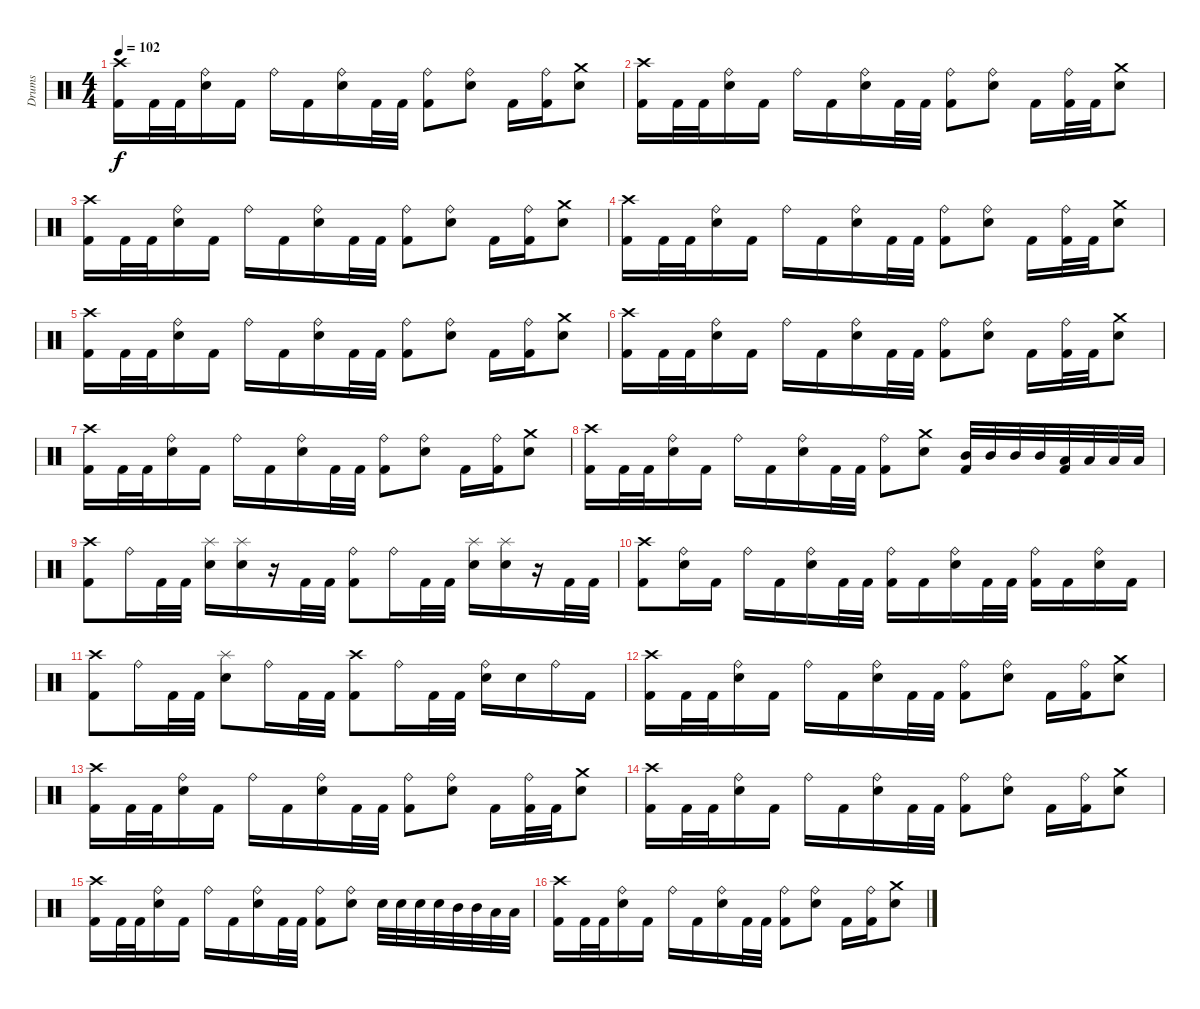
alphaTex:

\track ("Drums" "Drums") {instrument percussion}
\staff {score}
\articulation defaults
\ts (4 4)
\tempo 102
\clef neutral
\ks c
("Crash high (hit)" "Kick (hit) 2").16{dy f} "Kick (hit) 2".32 "Kick (hit) 2".32 ("Ride (bell)" "Snare (hit) 2").16 "Kick (hit) 2".16 "Ride (bell)".16 "Kick (hit) 2".16 ("Ride (bell)" "Snare (hit) 2").16 "Kick (hit) 2".32 "Kick (hit) 2".32 ("Ride (bell)" "Kick (hit) 2").8 ("Ride (bell)" "Snare (hit) 2").8 "Kick (hit) 2".16 ("Ride (bell)" "Kick (hit) 2").16 ("Crash medium (hit)" "Snare (hit) 2").8 |
("Crash high (hit)" "Kick (hit) 2").16 "Kick (hit) 2".32 "Kick (hit) 2".32 ("Ride (bell)" "Snare (hit) 2").16 "Kick (hit) 2".16 "Ride (bell)".16 "Kick (hit) 2".16 ("Ride (bell)" "Snare (hit) 2").16 "Kick (hit) 2".32 "Kick (hit) 2".32 ("Ride (bell)" "Kick (hit) 2").8 ("Ride (bell)" "Snare (hit) 2").8 "Kick (hit) 2".16 ("Ride (bell)" "Kick (hit) 2").32 "Kick (hit) 2".32 ("Crash medium (hit)" "Snare (hit) 2").8 |
("Crash high (hit)" "Kick (hit) 2").16 "Kick (hit) 2".32 "Kick (hit) 2".32 ("Ride (bell)" "Snare (hit) 2").16 "Kick (hit) 2".16 "Ride (bell)".16 "Kick (hit) 2".16 ("Ride (bell)" "Snare (hit) 2").16 "Kick (hit) 2".32 "Kick (hit) 2".32 ("Ride (bell)" "Kick (hit) 2").8 ("Ride (bell)" "Snare (hit) 2").8 "Kick (hit) 2".16 ("Ride (bell)" "Kick (hit) 2").16 ("Crash medium (hit)" "Snare (hit) 2").8 |
("Crash high (hit)" "Kick (hit) 2").16 "Kick (hit) 2".32 "Kick (hit) 2".32 ("Ride (bell)" "Snare (hit) 2").16 "Kick (hit) 2".16 "Ride (bell)".16 "Kick (hit) 2".16 ("Ride (bell)" "Snare (hit) 2").16 "Kick (hit) 2".32 "Kick (hit) 2".32 ("Ride (bell)" "Kick (hit) 2").8 ("Ride (bell)" "Snare (hit) 2").8 "Kick (hit) 2".16 ("Ride (bell)" "Kick (hit) 2").32 "Kick (hit) 2".32 ("Crash medium (hit)" "Snare (hit) 2").8 |
("Crash high (hit)" "Kick (hit) 2").16 "Kick (hit) 2".32 "Kick (hit) 2".32 ("Ride (bell)" "Snare (hit) 2").16 "Kick (hit) 2".16 "Ride (bell)".16 "Kick (hit) 2".16 ("Ride (bell)" "Snare (hit) 2").16 "Kick (hit) 2".32 "Kick (hit) 2".32 ("Ride (bell)" "Kick (hit) 2").8 ("Ride (bell)" "Snare (hit) 2").8 "Kick (hit) 2".16 ("Ride (bell)" "Kick (hit) 2").16 ("Crash medium (hit)" "Snare (hit) 2").8 |
("Crash high (hit)" "Kick (hit) 2").16 "Kick (hit) 2".32 "Kick (hit) 2".32 ("Ride (bell)" "Snare (hit) 2").16 "Kick (hit) 2".16 "Ride (bell)".16 "Kick (hit) 2".16 ("Ride (bell)" "Snare (hit) 2").16 "Kick (hit) 2".32 "Kick (hit) 2".32 ("Ride (bell)" "Kick (hit) 2").8 ("Ride (bell)" "Snare (hit) 2").8 "Kick (hit) 2".16 ("Ride (bell)" "Kick (hit) 2").32 "Kick (hit) 2".32 ("Crash medium (hit)" "Snare (hit) 2").8 |
("Crash high (hit)" "Kick (hit) 2").16 "Kick (hit) 2".32 "Kick (hit) 2".32 ("Ride (bell)" "Snare (hit) 2").16 "Kick (hit) 2".16 "Ride (bell)".16 "Kick (hit) 2".16 ("Ride (bell)" "Snare (hit) 2").16 "Kick (hit) 2".32 "Kick (hit) 2".32 ("Ride (bell)" "Kick (hit) 2").8 ("Ride (bell)" "Snare (hit) 2").8 "Kick (hit) 2".16 ("Ride (bell)" "Kick (hit) 2").16 ("Crash medium (hit)" "Snare (hit) 2").8 |
("Crash high (hit)" "Kick (hit) 2").16 "Kick (hit) 2".32 "Kick (hit) 2".32 ("Ride (bell)" "Snare (hit) 2").16 "Kick (hit) 2".16 "Ride (bell)".16 "Kick (hit) 2".16 ("Ride (bell)" "Snare (hit) 2").16 "Kick (hit) 2".32 "Kick (hit) 2".32 ("Ride (bell)" "Kick (hit) 2").8 ("Crash medium (hit)" "Snare (hit) 2").8 ("Mid Tom (hit)" "Kick (hit) 2").32 "Mid Tom (hit)".32 "Mid Tom (hit)".32 "Mid Tom (hit)".32 ("Low Tom (hit)" "Kick (hit) 2").32 "Low Tom (hit)".32 "Low Tom (hit)".32 "Low Tom (hit)".32 |
("Crash high (hit)" "Kick (hit) 2").8 "Ride (bell)".16 "Kick (hit) 2".32 "Kick (hit) 2".32 ("Splash (hit)" "Snare (hit) 2").16 ("Splash (hit)" "Snare (hit) 2").16 r.16 "Kick (hit) 2".32 "Kick (hit) 2".32 ("Ride (bell)" "Kick (hit) 2").8 "Ride (bell)".16 "Kick (hit) 2".32 "Kick (hit) 2".32 ("Splash (hit)" "Snare (hit) 2").16 ("Splash (hit)" "Snare (hit) 2").16 r.16 "Kick (hit) 2".32 "Kick (hit) 2".32 |
("Crash high (hit)" "Kick (hit) 2").8 ("Ride (bell)" "Snare (hit) 2").16 "Kick (hit) 2".16 "Ride (bell)".16 "Kick (hit) 2".16 ("Ride (bell)" "Snare (hit) 2").16 "Kick (hit) 2".32 "Kick (hit) 2".32 ("Ride (bell)" "Kick (hit) 2").16 "Kick (hit) 2".16 ("Ride (bell)" "Snare (hit) 2").16 "Kick (hit) 2".32 "Kick (hit) 2".32 ("Ride (bell)" "Kick (hit) 2").16 "Kick (hit) 2".16 ("Ride (bell)" "Snare (hit) 2").16 "Kick (hit) 2".16 |
("Crash high (hit)" "Kick (hit) 2").8 "Ride (bell)".16 "Kick (hit) 2".32 "Kick (hit) 2".32 ("Splash (hit)" "Snare (hit) 2").8 "Ride (bell)".16 "Kick (hit) 2".32 "Kick (hit) 2".32 ("Crash high (hit)" "Kick (hit) 2").8 "Ride (bell)".16 "Kick (hit) 2".32 "Kick (hit) 2".32 ("Ride (bell)" "Snare (hit) 2").16 "Snare (hit) 2".16 "Ride (bell)".16 "Kick (hit) 2".16 |
("Crash high (hit)" "Kick (hit) 2").16 "Kick (hit) 2".32 "Kick (hit) 2".32 ("Ride (bell)" "Snare (hit) 2").16 "Kick (hit) 2".16 "Ride (bell)".16 "Kick (hit) 2".16 ("Ride (bell)" "Snare (hit) 2").16 "Kick (hit) 2".32 "Kick (hit) 2".32 ("Ride (bell)" "Kick (hit) 2").8 ("Ride (bell)" "Snare (hit) 2").8 "Kick (hit) 2".16 ("Ride (bell)" "Kick (hit) 2").16 ("Crash medium (hit)" "Snare (hit) 2").8 |
("Crash high (hit)" "Kick (hit) 2").16 "Kick (hit) 2".32 "Kick (hit) 2".32 ("Ride (bell)" "Snare (hit) 2").16 "Kick (hit) 2".16 "Ride (bell)".16 "Kick (hit) 2".16 ("Ride (bell)" "Snare (hit) 2").16 "Kick (hit) 2".32 "Kick (hit) 2".32 ("Ride (bell)" "Kick (hit) 2").8 ("Ride (bell)" "Snare (hit) 2").8 "Kick (hit) 2".16 ("Ride (bell)" "Kick (hit) 2").32 "Kick (hit) 2".32 ("Crash medium (hit)" "Snare (hit) 2").8 |
("Crash high (hit)" "Kick (hit) 2").16 "Kick (hit) 2".32 "Kick (hit) 2".32 ("Ride (bell)" "Snare (hit) 2").16 "Kick (hit) 2".16 "Ride (bell)".16 "Kick (hit) 2".16 ("Ride (bell)" "Snare (hit) 2").16 "Kick (hit) 2".32 "Kick (hit) 2".32 ("Ride (bell)" "Kick (hit) 2").8 ("Ride (bell)" "Snare (hit) 2").8 "Kick (hit) 2".16 ("Ride (bell)" "Kick (hit) 2").16 ("Crash medium (hit)" "Snare (hit) 2").8 |
("Crash high (hit)" "Kick (hit) 2").16 "Kick (hit) 2".32 "Kick (hit) 2".32 ("Ride (bell)" "Snare (hit) 2").16 "Kick (hit) 2".16 "Ride (bell)".16 "Kick (hit) 2".16 ("Ride (bell)" "Snare (hit) 2").16 "Kick (hit) 2".32 "Kick (hit) 2".32 ("Ride (bell)" "Kick (hit) 2").8 ("Ride (bell)" "Snare (hit) 2").8 "Snare (hit) 2".32 "Snare (hit) 2".32 "Snare (hit) 2".32 "Snare (hit) 2".32 "Mid Tom (hit)".32 "Mid Tom (hit)".32 "Low Tom (hit)".32 "Low Tom (hit)".32 |
("Crash high (hit)" "Kick (hit) 2").16 "Kick (hit) 2".32 "Kick (hit) 2".32 ("Ride (bell)" "Snare (hit) 2").16 "Kick (hit) 2".16 "Ride (bell)".16 "Kick (hit) 2".16 ("Ride (bell)" "Snare (hit) 2").16 "Kick (hit) 2".32 "Kick (hit) 2".32 ("Ride (bell)" "Kick (hit) 2").8 ("Ride (bell)" "Snare (hit) 2").8 "Kick (hit) 2".16 ("Ride (bell)" "Kick (hit) 2").16 ("Crash medium (hit)" "Snare (hit) 2").8
